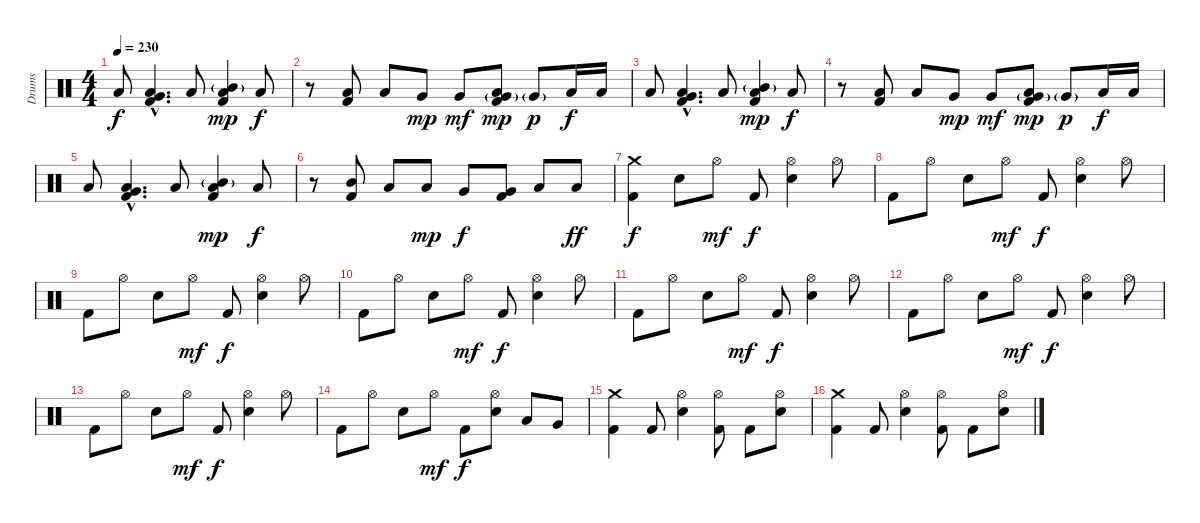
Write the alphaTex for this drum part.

\track ("Drums" "Drums") {instrument percussion}
\staff {score}
\articulation defaults
\ts (4 4)
\tempo 230
\clef neutral
\ks c "Low Floor Tom (hit)".8{dy f}
("Very Low Tom (hit)"{hac} "Low Floor Tom (hit)"{hac} "Kick (hit) 2"{hac}).4{d} "Low Tom (hit)".8 ("Mid Tom (hit)"{g} "Low Tom (hit)" "Kick (hit) 2").4{dy mp} "Low Tom (hit)".8{dy f} |
r.8 ("Low Tom (hit)" "Kick (hit) 2").8 "Low Tom (hit)".8 "Very Low Tom (hit)".8{dy mp} "Very Low Tom (hit)".8{dy mf} ("Very Low Tom (hit)"{g} "Low Tom (hit)" "Kick (hit) 2").8{dy mp} "Very Low Tom (hit)"{g}.8{dy p} "Low Floor Tom (hit)".16{dy f} "Low Floor Tom (hit)".16 |
"Low Floor Tom (hit)".8 ("Very Low Tom (hit)"{hac} "Low Floor Tom (hit)"{hac} "Kick (hit) 2"{hac}).4{d} "Low Tom (hit)".8 ("Mid Tom (hit)"{g} "Low Tom (hit)" "Kick (hit) 2").4{dy mp} "Low Tom (hit)".8{dy f} |
r.8 ("Low Tom (hit)" "Kick (hit) 2").8 "Low Tom (hit)".8 "Very Low Tom (hit)".8{dy mp} "Very Low Tom (hit)".8{dy mf} ("Very Low Tom (hit)"{g} "Low Tom (hit)" "Kick (hit) 2").8{dy mp} "Very Low Tom (hit)"{g}.8{dy p} "Low Floor Tom (hit)".16{dy f} "Low Floor Tom (hit)".16 |
"Low Floor Tom (hit)".8 ("Very Low Tom (hit)"{hac} "Low Floor Tom (hit)"{hac} "Kick (hit) 2"{hac}).4{d} "Low Tom (hit)".8 ("Mid Tom (hit)"{g} "Low Tom (hit)" "Kick (hit) 2").4{dy mp} "Low Tom (hit)".8{dy f} |
r.8 ("Mid Tom (hit)" "Kick (hit) 2").8 "Low Tom (hit)".8 "Low Tom (hit)".8{dy mp} "Very Low Tom (hit)".8{dy f} ("Very Low Tom (hit)" "Kick (hit) 2").8 "Low Floor Tom (hit)".8 "Low Floor Tom (hit)".8{dy ff} |
("Crash medium (hit)" "Kick (hit) 2").4{dy f} "Electric Snare (hit)".8 "Hi-Hat (open)".8{dy mf} "Kick (hit) 2".8{dy f} ("Hi-Hat (open)" "Electric Snare (hit)").4 "Hi-Hat (open)".8 |
"Kick (hit) 2".8 "Hi-Hat (open)".8 "Electric Snare (hit)".8 "Hi-Hat (open)".8{dy mf} "Kick (hit) 2".8{dy f} ("Hi-Hat (open)" "Electric Snare (hit)").4 "Hi-Hat (open)".8 |
"Kick (hit) 2".8 "Hi-Hat (open)".8 "Electric Snare (hit)".8 "Hi-Hat (open)".8{dy mf} "Kick (hit) 2".8{dy f} ("Hi-Hat (open)" "Electric Snare (hit)").4 "Hi-Hat (open)".8 |
"Kick (hit) 2".8 "Hi-Hat (open)".8 "Electric Snare (hit)".8 "Hi-Hat (open)".8{dy mf} "Kick (hit) 2".8{dy f} ("Hi-Hat (open)" "Electric Snare (hit)").4 "Hi-Hat (open)".8 |
"Kick (hit) 2".8 "Hi-Hat (open)".8 "Electric Snare (hit)".8 "Hi-Hat (open)".8{dy mf} "Kick (hit) 2".8{dy f} ("Hi-Hat (open)" "Electric Snare (hit)").4 "Hi-Hat (open)".8 |
"Kick (hit) 2".8 "Hi-Hat (open)".8 "Electric Snare (hit)".8 "Hi-Hat (open)".8{dy mf} "Kick (hit) 2".8{dy f} ("Hi-Hat (open)" "Electric Snare (hit)").4 "Hi-Hat (open)".8 |
"Kick (hit) 2".8 "Hi-Hat (open)".8 "Electric Snare (hit)".8 "Hi-Hat (open)".8{dy mf} "Kick (hit) 2".8{dy f} ("Hi-Hat (open)" "Electric Snare (hit)").4 "Hi-Hat (open)".8 |
"Kick (hit) 2".8 "Hi-Hat (open)".8 "Electric Snare (hit)".8 "Hi-Hat (open)".8{dy mf} "Kick (hit) 2".8{dy f} ("Hi-Hat (open)" "Electric Snare (hit)").8 "Low Tom (hit)".8 "Very Low Tom (hit)".8 |
("Crash medium (hit)" "Kick (hit) 2").4 "Kick (hit) 2".8 ("Hi-Hat (open)" "Electric Snare (hit)").4 ("Hi-Hat (open)" "Kick (hit) 2").8 "Kick (hit) 2".8 ("Hi-Hat (open)" "Electric Snare (hit)").8 |
("Crash medium (hit)" "Kick (hit) 2").4 "Kick (hit) 2".8 ("Hi-Hat (open)" "Electric Snare (hit)").4 ("Hi-Hat (open)" "Kick (hit) 2").8 "Kick (hit) 2".8 ("Hi-Hat (open)" "Electric Snare (hit)").8
